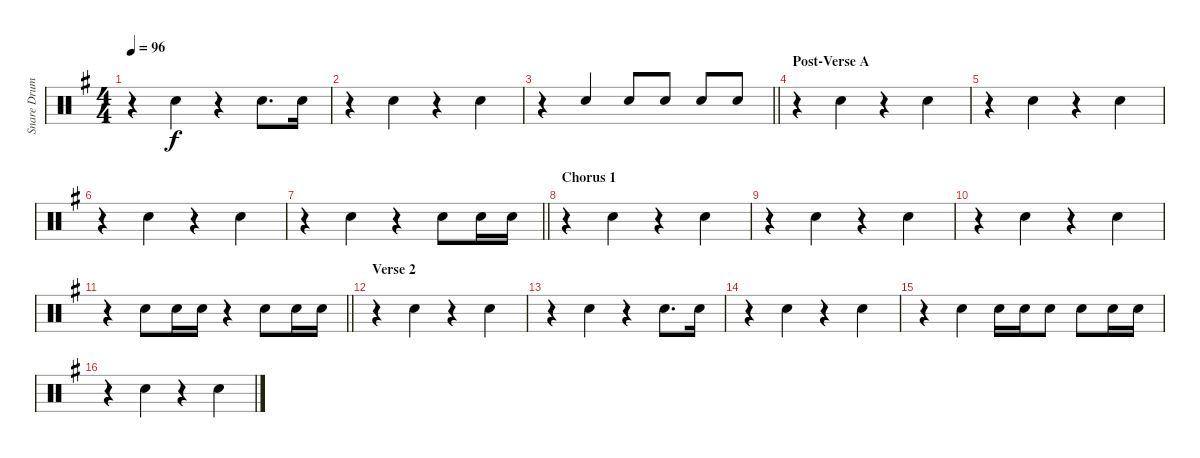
\track ("Snare Drum - reverb" "Snare Drum") {instrument percussion}
\staff {score}
\articulation defaults
\ts (4 4)
\tempo 96
\clef neutral
\ks g
r.4{dy f beam merge} "Snare (hit) 2".4 r.4 "Snare (hit) 2".8{d} "Snare (hit) 2".16 |
r.4{beam merge} "Snare (hit) 2".4 r.4{beam merge} "Snare (hit) 2".4 |
\barLineRight lightlight
r.4{beam Up} "Snare (hit) 2".4{beam Up} "Snare (hit) 2".8{beam Up} "Snare (hit) 2".8{beam Up} "Snare (hit) 2".8{beam Up} "Snare (hit) 2".8{beam Up} |
\section ("" "Post-Verse A")
r.4{beam merge} "Snare (hit) 2".4 r.4{beam merge} "Snare (hit) 2".4 |
r.4{beam merge} "Snare (hit) 2".4 r.4{beam merge} "Snare (hit) 2".4 |
r.4{beam merge} "Snare (hit) 2".4 r.4{beam merge} "Snare (hit) 2".4 |
\barLineRight lightlight
r.4{beam merge} "Snare (hit) 2".4 r.4 "Snare (hit) 2".8 "Snare (hit) 2".16 "Snare (hit) 2".16 |
\section ("" "Chorus 1")
r.4{beam merge} "Snare (hit) 2".4 r.4{beam merge} "Snare (hit) 2".4 |
r.4{beam merge} "Snare (hit) 2".4 r.4{beam merge} "Snare (hit) 2".4 |
r.4{beam merge} "Snare (hit) 2".4 r.4{beam merge} "Snare (hit) 2".4 |
\barLineRight lightlight
r.4 "Snare (hit) 2".8 "Snare (hit) 2".16 "Snare (hit) 2".16 r.4 "Snare (hit) 2".8 "Snare (hit) 2".16 "Snare (hit) 2".16 |
\section ("" "Verse 2")
r.4{beam merge} "Snare (hit) 2".4 r.4{beam merge} "Snare (hit) 2".4 |
r.4{beam merge} "Snare (hit) 2".4 r.4 "Snare (hit) 2".8{d} "Snare (hit) 2".16 |
r.4{beam merge} "Snare (hit) 2".4 r.4{beam merge} "Snare (hit) 2".4 |
r.4{beam merge} "Snare (hit) 2".4 "Snare (hit) 2".16 "Snare (hit) 2".16 "Snare (hit) 2".8 "Snare (hit) 2".8 "Snare (hit) 2".16 "Snare (hit) 2".16 |
r.4{beam merge} "Snare (hit) 2".4 r.4{beam merge} "Snare (hit) 2".4
